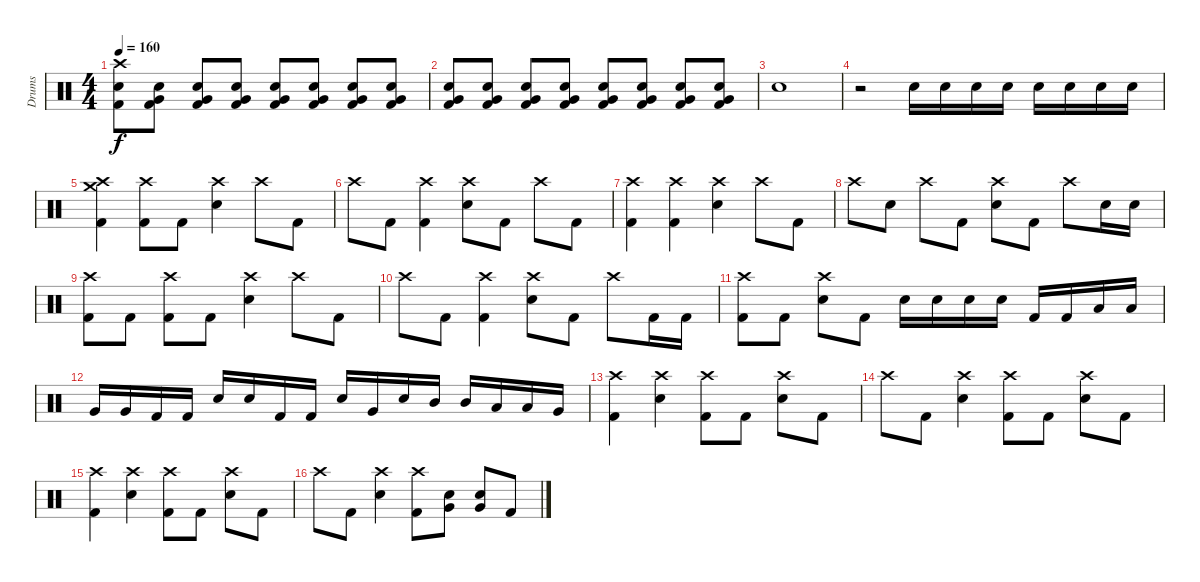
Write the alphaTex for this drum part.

\track ("Drums" "Drums") {instrument percussion}
\staff {score}
\articulation defaults
\ts (4 4)
\tempo 160
\clef neutral
\ks c
("Crash high (hit)" "Electric Snare (hit)" "Kick (hit) 2").8{dy f} ("Very Low Tom (hit)" "Electric Snare (hit)" "Kick (hit) 2").8 ("Very Low Tom (hit)" "Electric Snare (hit)" "Kick (hit) 2").8 ("Very Low Tom (hit)" "Electric Snare (hit)" "Kick (hit) 2").8 ("Very Low Tom (hit)" "Electric Snare (hit)" "Kick (hit) 2").8 ("Very Low Tom (hit)" "Electric Snare (hit)" "Kick (hit) 2").8 ("Very Low Tom (hit)" "Electric Snare (hit)" "Kick (hit) 2").8 ("Very Low Tom (hit)" "Electric Snare (hit)" "Kick (hit) 2").8 |
("Very Low Tom (hit)" "Electric Snare (hit)" "Kick (hit) 2").8 ("Very Low Tom (hit)" "Electric Snare (hit)" "Kick (hit) 2").8 ("Very Low Tom (hit)" "Electric Snare (hit)" "Kick (hit) 2").8 ("Very Low Tom (hit)" "Electric Snare (hit)" "Kick (hit) 2").8 ("Very Low Tom (hit)" "Electric Snare (hit)" "Kick (hit) 2").8 ("Very Low Tom (hit)" "Electric Snare (hit)" "Kick (hit) 2").8 ("Very Low Tom (hit)" "Electric Snare (hit)" "Kick (hit) 2").8 ("Very Low Tom (hit)" "Electric Snare (hit)" "Kick (hit) 2").8 |
"Electric Snare (hit)".1 |
r.2 "Electric Snare (hit)".16 "Electric Snare (hit)".16 "Electric Snare (hit)".16 "Electric Snare (hit)".16 "Electric Snare (hit)".16 "Electric Snare (hit)".16 "Electric Snare (hit)".16 "Electric Snare (hit)".16 |
("Crash high (hit)" "Crash medium (hit)" "Kick (hit) 2").4 ("Crash high (hit)" "Kick (hit) 2").8 "Kick (hit) 2".8 ("Crash high (hit)" "Electric Snare (hit)").4 "Crash high (hit)".8 "Kick (hit) 2".8 |
"Crash high (hit)".8 "Kick (hit) 2".8 ("Crash high (hit)" "Kick (hit) 2").4 ("Crash high (hit)" "Electric Snare (hit)").8 "Kick (hit) 2".8 "Crash high (hit)".8 "Kick (hit) 2".8 |
("Crash high (hit)" "Kick (hit) 2").4 ("Crash high (hit)" "Kick (hit) 2").4 ("Crash high (hit)" "Electric Snare (hit)").4 "Crash high (hit)".8 "Kick (hit) 2".8 |
"Crash high (hit)".8 "Electric Snare (hit)".8 "Crash high (hit)".8 "Kick (hit) 2".8 ("Crash high (hit)" "Electric Snare (hit)").8 "Kick (hit) 2".8 "Crash high (hit)".8 "Electric Snare (hit)".16 "Electric Snare (hit)".16 |
("Crash high (hit)" "Kick (hit) 2").8 "Kick (hit) 2".8 ("Crash high (hit)" "Kick (hit) 2").8 "Kick (hit) 2".8 ("Crash high (hit)" "Electric Snare (hit)").4 "Crash high (hit)".8 "Kick (hit) 2".8 |
"Crash high (hit)".8 "Kick (hit) 2".8 ("Crash high (hit)" "Kick (hit) 2").4 ("Crash high (hit)" "Electric Snare (hit)").8 "Kick (hit) 2".8 "Crash high (hit)".8 "Kick (hit) 2".16 "Kick (hit) 2".16 |
("Crash high (hit)" "Kick (hit) 2").8 "Kick (hit) 2".8 ("Crash high (hit)" "Electric Snare (hit)").8 "Kick (hit) 2".8 "Electric Snare (hit)".16 "Electric Snare (hit)".16 "Electric Snare (hit)".16 "Electric Snare (hit)".16 "Kick (hit) 2".16 "Kick (hit) 2".16 "Low Tom (hit)".16 "Low Tom (hit)".16 |
"Very Low Tom (hit)".16 "Very Low Tom (hit)".16 "Kick (hit) 2".16 "Kick (hit) 2".16 "Electric Snare (hit)".16 "Electric Snare (hit)".16 "Kick (hit) 2".16 "Kick (hit) 2".16 "Electric Snare (hit)".16 "Very Low Tom (hit)".16 "Electric Snare (hit)".16 "Mid Tom (hit)".16 "Mid Tom (hit)".16 "Low Tom (hit)".16 "Low Tom (hit)".16 "Very Low Tom (hit)".16 |
("Crash high (hit)" "Kick (hit) 2").4 ("Crash high (hit)" "Electric Snare (hit)").4 ("Crash high (hit)" "Kick (hit) 2").8 "Kick (hit) 2".8 ("Crash high (hit)" "Electric Snare (hit)").8 "Kick (hit) 2".8 |
"Crash high (hit)".8 "Kick (hit) 2".8 ("Crash high (hit)" "Electric Snare (hit)").4 ("Crash high (hit)" "Kick (hit) 2").8 "Kick (hit) 2".8 ("Crash high (hit)" "Electric Snare (hit)").8 "Kick (hit) 2".8 |
("Crash high (hit)" "Kick (hit) 2").4 ("Crash high (hit)" "Electric Snare (hit)").4 ("Crash high (hit)" "Kick (hit) 2").8 "Kick (hit) 2".8 ("Crash high (hit)" "Electric Snare (hit)").8 "Kick (hit) 2".8 |
"Crash high (hit)".8 "Kick (hit) 2".8 ("Crash high (hit)" "Electric Snare (hit)").4 ("Crash high (hit)" "Kick (hit) 2").8 ("Very Low Tom (hit)" "Electric Snare (hit)").8 ("Very Low Tom (hit)" "Electric Snare (hit)").8 "Kick (hit) 2".8
